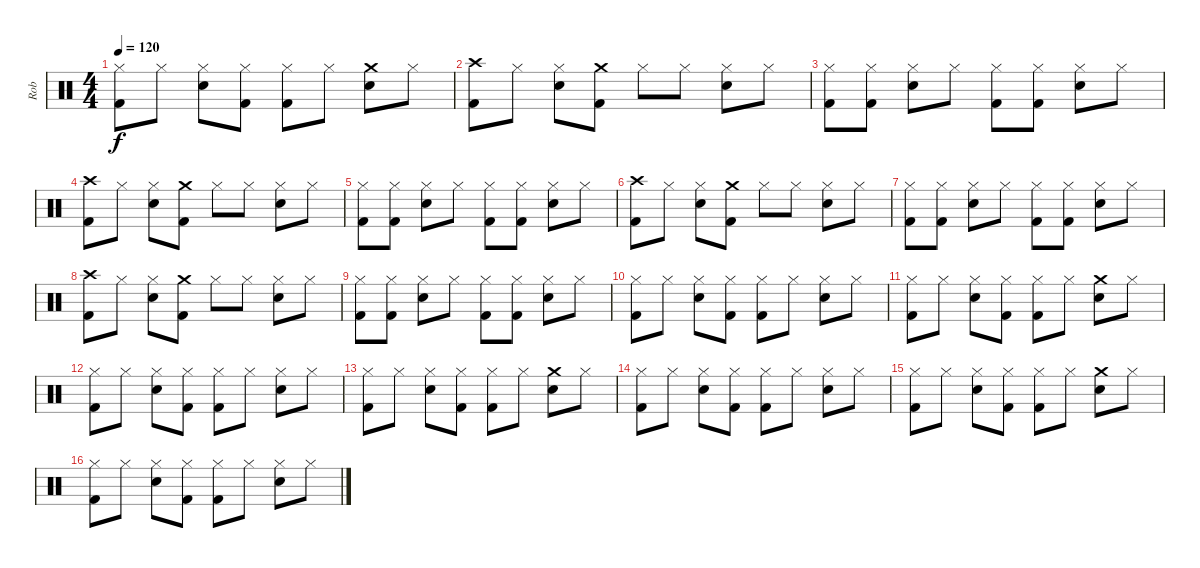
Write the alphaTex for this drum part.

\track ("Rob" "Rob") {instrument percussion}
\staff {score}
\articulation defaults
\ts (4 4)
\tempo 120
\clef neutral
\ks c
("Hi-Hat (closed)" "Kick (hit) 2").8{dy f} "Hi-Hat (closed)".8 ("Hi-Hat (closed)" "Electric Snare (hit)").8 ("Hi-Hat (closed)" "Kick (hit) 2").8 ("Hi-Hat (closed)" "Kick (hit) 2").8 "Hi-Hat (closed)".8 ("Crash medium (hit)" "Electric Snare (hit)").8 "Hi-Hat (closed)".8 |
("Crash high (hit)" "Kick (hit) 2").8 "Hi-Hat (closed)".8 ("Hi-Hat (closed)" "Electric Snare (hit)").8 ("Crash medium (hit)" "Kick (hit) 2").8 "Hi-Hat (closed)".8 "Hi-Hat (closed)".8 ("Hi-Hat (closed)" "Electric Snare (hit)").8 "Hi-Hat (closed)".8 |
("Hi-Hat (closed)" "Kick (hit) 2").8 ("Hi-Hat (closed)" "Kick (hit) 2").8 ("Hi-Hat (closed)" "Electric Snare (hit)").8 "Hi-Hat (closed)".8 ("Hi-Hat (closed)" "Kick (hit) 2").8 ("Hi-Hat (closed)" "Kick (hit) 2").8 ("Hi-Hat (closed)" "Electric Snare (hit)").8 "Hi-Hat (closed)".8 |
("Crash high (hit)" "Kick (hit) 2").8 "Hi-Hat (closed)".8 ("Hi-Hat (closed)" "Electric Snare (hit)").8 ("Crash medium (hit)" "Kick (hit) 2").8 "Hi-Hat (closed)".8 "Hi-Hat (closed)".8 ("Hi-Hat (closed)" "Electric Snare (hit)").8 "Hi-Hat (closed)".8 |
("Hi-Hat (closed)" "Kick (hit) 2").8 ("Hi-Hat (closed)" "Kick (hit) 2").8 ("Hi-Hat (closed)" "Electric Snare (hit)").8 "Hi-Hat (closed)".8 ("Hi-Hat (closed)" "Kick (hit) 2").8 ("Hi-Hat (closed)" "Kick (hit) 2").8 ("Hi-Hat (closed)" "Electric Snare (hit)").8 "Hi-Hat (closed)".8 |
("Crash high (hit)" "Kick (hit) 2").8 "Hi-Hat (closed)".8 ("Hi-Hat (closed)" "Electric Snare (hit)").8 ("Crash medium (hit)" "Kick (hit) 2").8 "Hi-Hat (closed)".8 "Hi-Hat (closed)".8 ("Hi-Hat (closed)" "Electric Snare (hit)").8 "Hi-Hat (closed)".8 |
("Hi-Hat (closed)" "Kick (hit) 2").8 ("Hi-Hat (closed)" "Kick (hit) 2").8 ("Hi-Hat (closed)" "Electric Snare (hit)").8 "Hi-Hat (closed)".8 ("Hi-Hat (closed)" "Kick (hit) 2").8 ("Hi-Hat (closed)" "Kick (hit) 2").8 ("Hi-Hat (closed)" "Electric Snare (hit)").8 "Hi-Hat (closed)".8 |
("Crash high (hit)" "Kick (hit) 2").8 "Hi-Hat (closed)".8 ("Hi-Hat (closed)" "Electric Snare (hit)").8 ("Crash medium (hit)" "Kick (hit) 2").8 "Hi-Hat (closed)".8 "Hi-Hat (closed)".8 ("Hi-Hat (closed)" "Electric Snare (hit)").8 "Hi-Hat (closed)".8 |
("Hi-Hat (closed)" "Kick (hit) 2").8 ("Hi-Hat (closed)" "Kick (hit) 2").8 ("Hi-Hat (closed)" "Electric Snare (hit)").8 "Hi-Hat (closed)".8 ("Hi-Hat (closed)" "Kick (hit) 2").8 ("Hi-Hat (closed)" "Kick (hit) 2").8 ("Hi-Hat (closed)" "Electric Snare (hit)").8 "Hi-Hat (closed)".8 |
("Hi-Hat (closed)" "Kick (hit) 2").8 "Hi-Hat (closed)".8 ("Hi-Hat (closed)" "Electric Snare (hit)").8 ("Hi-Hat (closed)" "Kick (hit) 2").8 ("Hi-Hat (closed)" "Kick (hit) 2").8 "Hi-Hat (closed)".8 ("Hi-Hat (closed)" "Electric Snare (hit)").8 "Hi-Hat (closed)".8 |
("Hi-Hat (closed)" "Kick (hit) 2").8 "Hi-Hat (closed)".8 ("Hi-Hat (closed)" "Electric Snare (hit)").8 ("Hi-Hat (closed)" "Kick (hit) 2").8 ("Hi-Hat (closed)" "Kick (hit) 2").8 "Hi-Hat (closed)".8 ("Crash medium (hit)" "Electric Snare (hit)").8 "Hi-Hat (closed)".8 |
("Hi-Hat (closed)" "Kick (hit) 2").8 "Hi-Hat (closed)".8 ("Hi-Hat (closed)" "Electric Snare (hit)").8 ("Hi-Hat (closed)" "Kick (hit) 2").8 ("Hi-Hat (closed)" "Kick (hit) 2").8 "Hi-Hat (closed)".8 ("Hi-Hat (closed)" "Electric Snare (hit)").8 "Hi-Hat (closed)".8 |
("Hi-Hat (closed)" "Kick (hit) 2").8 "Hi-Hat (closed)".8 ("Hi-Hat (closed)" "Electric Snare (hit)").8 ("Hi-Hat (closed)" "Kick (hit) 2").8 ("Hi-Hat (closed)" "Kick (hit) 2").8 "Hi-Hat (closed)".8 ("Crash medium (hit)" "Electric Snare (hit)").8 "Hi-Hat (closed)".8 |
("Hi-Hat (closed)" "Kick (hit) 2").8 "Hi-Hat (closed)".8 ("Hi-Hat (closed)" "Electric Snare (hit)").8 ("Hi-Hat (closed)" "Kick (hit) 2").8 ("Hi-Hat (closed)" "Kick (hit) 2").8 "Hi-Hat (closed)".8 ("Hi-Hat (closed)" "Electric Snare (hit)").8 "Hi-Hat (closed)".8 |
("Hi-Hat (closed)" "Kick (hit) 2").8 "Hi-Hat (closed)".8 ("Hi-Hat (closed)" "Electric Snare (hit)").8 ("Hi-Hat (closed)" "Kick (hit) 2").8 ("Hi-Hat (closed)" "Kick (hit) 2").8 "Hi-Hat (closed)".8 ("Crash medium (hit)" "Electric Snare (hit)").8 "Hi-Hat (closed)".8 |
("Hi-Hat (closed)" "Kick (hit) 2").8 "Hi-Hat (closed)".8 ("Hi-Hat (closed)" "Electric Snare (hit)").8 ("Hi-Hat (closed)" "Kick (hit) 2").8 ("Hi-Hat (closed)" "Kick (hit) 2").8 "Hi-Hat (closed)".8 ("Hi-Hat (closed)" "Electric Snare (hit)").8 "Hi-Hat (closed)".8
